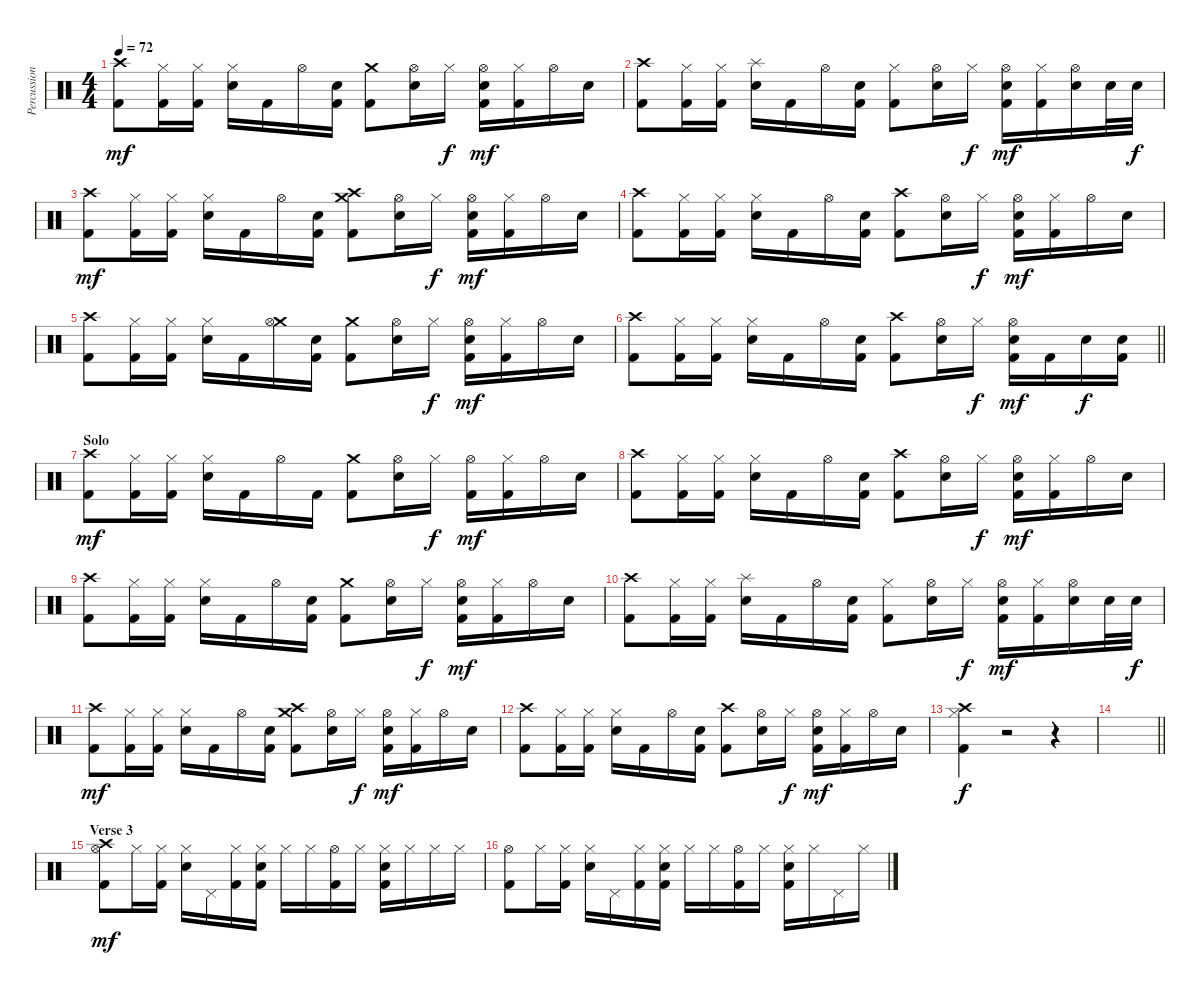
\track ("Percussion" "Percussion") {instrument percussion}
\staff {score}
\articulation defaults
\ts (4 4)
\tempo 72
\clef neutral
\ks c
("Crash high (hit)" "Kick (hit) 2").8{dy mf} ("Hi-Hat (closed)" "Kick (hit) 2").16 ("Hi-Hat (closed)" "Kick (hit) 2").16 ("Hi-Hat (closed)" "Snare (hit) 2").16 "Kick (hit) 2".16 "Hi-Hat (open)".16 ("Snare (hit) 2" "Kick (hit) 2").16 ("Crash medium (hit)" "Kick (hit) 2").8 ("Hi-Hat (open)" "Snare (hit) 2").16 "Hi-Hat (closed)".16{dy f} ("Hi-Hat (open)" "Snare (hit) 2" "Kick (hit) 2").16{dy mf} ("Hi-Hat (closed)" "Kick (hit) 2").16 "Hi-Hat (open)".16 "Snare (hit) 2".16 |
("Crash high (hit)" "Kick (hit) 2").8 ("Hi-Hat (closed)" "Kick (hit) 2").16 ("Hi-Hat (closed)" "Kick (hit) 2").16 ("Splash (hit)" "Snare (hit) 2").16 "Kick (hit) 2".16 "Hi-Hat (open)".16 ("Snare (hit) 2" "Kick (hit) 2").16 ("Hi-Hat (closed)" "Kick (hit) 2").8 ("Hi-Hat (open)" "Snare (hit) 2").16 "Hi-Hat (closed)".16{dy f} ("Hi-Hat (open)" "Snare (hit) 2" "Kick (hit) 2").16{dy mf} ("Hi-Hat (closed)" "Kick (hit) 2").16 ("Hi-Hat (open)" "Snare (hit) 2").16 "Snare (hit) 2".32 "Snare (hit) 2".32{dy f} |
("Crash high (hit)" "Kick (hit) 2").8{dy mf} ("Hi-Hat (closed)" "Kick (hit) 2").16 ("Hi-Hat (closed)" "Kick (hit) 2").16 ("Hi-Hat (closed)" "Snare (hit) 2").16 "Kick (hit) 2".16 "Hi-Hat (open)".16 ("Snare (hit) 2" "Kick (hit) 2").16 ("Crash medium (hit)" "Crash high (hit)" "Kick (hit) 2").8 ("Hi-Hat (open)" "Snare (hit) 2").16 "Hi-Hat (closed)".16{dy f} ("Hi-Hat (open)" "Snare (hit) 2" "Kick (hit) 2").16{dy mf} ("Hi-Hat (closed)" "Kick (hit) 2").16 "Hi-Hat (open)".16 "Snare (hit) 2".16 |
("Crash high (hit)" "Kick (hit) 2").8 ("Hi-Hat (closed)" "Kick (hit) 2").16 ("Hi-Hat (closed)" "Kick (hit) 2").16 ("Hi-Hat (closed)" "Snare (hit) 2").16 "Kick (hit) 2".16 "Hi-Hat (open)".16 ("Snare (hit) 2" "Kick (hit) 2").16 ("Crash high (hit)" "Kick (hit) 2").8 ("Hi-Hat (open)" "Snare (hit) 2").16 "Hi-Hat (closed)".16{dy f} ("Hi-Hat (open)" "Snare (hit) 2" "Kick (hit) 2").16{dy mf} ("Hi-Hat (closed)" "Kick (hit) 2").16 "Hi-Hat (open)".16 "Snare (hit) 2".16 |
("Crash high (hit)" "Kick (hit) 2").8 ("Hi-Hat (closed)" "Kick (hit) 2").16 ("Hi-Hat (closed)" "Kick (hit) 2").16 ("Hi-Hat (closed)" "Snare (hit) 2").16 "Kick (hit) 2".16 ("Crash medium (hit)" "Hi-Hat (open)").16 ("Snare (hit) 2" "Kick (hit) 2").16 ("Crash medium (hit)" "Kick (hit) 2").8 ("Hi-Hat (open)" "Snare (hit) 2").16 "Hi-Hat (closed)".16{dy f} ("Hi-Hat (open)" "Snare (hit) 2" "Kick (hit) 2").16{dy mf} ("Hi-Hat (closed)" "Kick (hit) 2").16 "Hi-Hat (open)".16 "Snare (hit) 2".16 |
\barLineRight lightlight
("Crash high (hit)" "Kick (hit) 2").8 ("Hi-Hat (closed)" "Kick (hit) 2").16 ("Hi-Hat (closed)" "Kick (hit) 2").16 ("Hi-Hat (closed)" "Snare (hit) 2").16 "Kick (hit) 2".16 "Hi-Hat (open)".16 ("Snare (hit) 2" "Kick (hit) 2").16 ("Crash high (hit)" "Kick (hit) 2").8 ("Hi-Hat (open)" "Snare (hit) 2").16 "Hi-Hat (closed)".16{dy f} ("Hi-Hat (open)" "Snare (hit) 2" "Kick (hit) 2").16{dy mf} "Kick (hit) 2".16 "Snare (hit) 2".16{dy f} ("Snare (hit) 2" "Kick (hit) 2").16 |
\section ("" "Solo")
("Crash high (hit)" "Kick (hit) 2").8{dy mf} ("Hi-Hat (closed)" "Kick (hit) 2").16 ("Hi-Hat (closed)" "Kick (hit) 2").16 ("Hi-Hat (closed)" "Snare (hit) 2").16 "Kick (hit) 2".16 "Hi-Hat (open)".16 "Kick (hit) 2".16 ("Crash medium (hit)" "Kick (hit) 2").8 ("Hi-Hat (open)" "Snare (hit) 2").16 "Hi-Hat (closed)".16{dy f} ("Hi-Hat (open)" "Kick (hit) 2").16{dy mf} ("Hi-Hat (closed)" "Kick (hit) 2").16 "Hi-Hat (open)".16 "Snare (hit) 2".16 |
("Crash high (hit)" "Kick (hit) 2").8 ("Hi-Hat (closed)" "Kick (hit) 2").16 ("Hi-Hat (closed)" "Kick (hit) 2").16 ("Hi-Hat (closed)" "Snare (hit) 2").16 "Kick (hit) 2".16 "Hi-Hat (open)".16 ("Snare (hit) 2" "Kick (hit) 2").16 ("Crash high (hit)" "Kick (hit) 2").8 ("Hi-Hat (open)" "Snare (hit) 2").16 "Hi-Hat (closed)".16{dy f} ("Hi-Hat (open)" "Snare (hit) 2" "Kick (hit) 2").16{dy mf} ("Hi-Hat (closed)" "Kick (hit) 2").16 "Hi-Hat (open)".16 "Snare (hit) 2".16 |
("Crash high (hit)" "Kick (hit) 2").8 ("Hi-Hat (closed)" "Kick (hit) 2").16 ("Hi-Hat (closed)" "Kick (hit) 2").16 ("Hi-Hat (closed)" "Snare (hit) 2").16 "Kick (hit) 2".16 "Hi-Hat (open)".16 ("Snare (hit) 2" "Kick (hit) 2").16 ("Crash medium (hit)" "Kick (hit) 2").8 ("Hi-Hat (open)" "Snare (hit) 2").16 "Hi-Hat (closed)".16{dy f} ("Hi-Hat (open)" "Snare (hit) 2" "Kick (hit) 2").16{dy mf} ("Hi-Hat (closed)" "Kick (hit) 2").16 "Hi-Hat (open)".16 "Snare (hit) 2".16 |
("Crash high (hit)" "Kick (hit) 2").8 ("Hi-Hat (closed)" "Kick (hit) 2").16 ("Hi-Hat (closed)" "Kick (hit) 2").16 ("Splash (hit)" "Snare (hit) 2").16 "Kick (hit) 2".16 "Hi-Hat (open)".16 ("Snare (hit) 2" "Kick (hit) 2").16 ("Hi-Hat (closed)" "Kick (hit) 2").8 ("Hi-Hat (open)" "Snare (hit) 2").16 "Hi-Hat (closed)".16{dy f} ("Hi-Hat (open)" "Snare (hit) 2" "Kick (hit) 2").16{dy mf} ("Hi-Hat (closed)" "Kick (hit) 2").16 ("Hi-Hat (open)" "Snare (hit) 2").16 "Snare (hit) 2".32 "Snare (hit) 2".32{dy f} |
("Crash high (hit)" "Kick (hit) 2").8{dy mf} ("Hi-Hat (closed)" "Kick (hit) 2").16 ("Hi-Hat (closed)" "Kick (hit) 2").16 ("Hi-Hat (closed)" "Snare (hit) 2").16 "Kick (hit) 2".16 "Hi-Hat (open)".16 ("Snare (hit) 2" "Kick (hit) 2").16 ("Crash medium (hit)" "Crash high (hit)" "Kick (hit) 2").8 ("Hi-Hat (open)" "Snare (hit) 2").16 "Hi-Hat (closed)".16{dy f} ("Hi-Hat (open)" "Snare (hit) 2" "Kick (hit) 2").16{dy mf} ("Hi-Hat (closed)" "Kick (hit) 2").16 "Hi-Hat (open)".16 "Snare (hit) 2".16 |
("Crash high (hit)" "Kick (hit) 2").8 ("Hi-Hat (closed)" "Kick (hit) 2").16 ("Hi-Hat (closed)" "Kick (hit) 2").16 ("Hi-Hat (closed)" "Snare (hit) 2").16 "Kick (hit) 2".16 "Hi-Hat (open)".16 ("Snare (hit) 2" "Kick (hit) 2").16 ("Crash high (hit)" "Kick (hit) 2").8 ("Hi-Hat (open)" "Snare (hit) 2").16 "Hi-Hat (closed)".16{dy f} ("Hi-Hat (open)" "Snare (hit) 2" "Kick (hit) 2").16{dy mf} ("Hi-Hat (closed)" "Kick (hit) 2").16 "Hi-Hat (open)".16 "Snare (hit) 2".16 |
("Crash high (hit)" "Hi-Hat (closed)" "Kick (hit) 2").4{dy f} r.2 r.4 |
\barLineRight lightlight
|
\section ("" "Verse 3")
("Crash high (hit)" "Hi-Hat (open)" "Kick (hit) 2").8{dy mf} "Hi-Hat (closed)".16 ("Hi-Hat (closed)" "Kick (hit) 2").16 ("Hi-Hat (closed)" "Snare (hit) 2").16 "Pedal Hi-Hat (hit)".16 ("Hi-Hat (closed)" "Kick (hit) 2").16 ("Hi-Hat (closed)" "Snare (hit) 2" "Kick (hit) 2").16 "Hi-Hat (closed)".16 "Hi-Hat (closed)".16 ("Hi-Hat (open)" "Kick (hit) 2").16 "Hi-Hat (closed)".16 ("Hi-Hat (closed)" "Snare (hit) 2" "Kick (hit) 2").16 "Hi-Hat (closed)".16 "Hi-Hat (closed)".16 "Hi-Hat (closed)".16 |
("Hi-Hat (open)" "Kick (hit) 2").8 "Hi-Hat (closed)".16 ("Hi-Hat (closed)" "Kick (hit) 2").16 ("Hi-Hat (closed)" "Snare (hit) 2").16 "Pedal Hi-Hat (hit)".16 ("Hi-Hat (closed)" "Kick (hit) 2").16 ("Hi-Hat (closed)" "Snare (hit) 2" "Kick (hit) 2").16 "Hi-Hat (closed)".16 "Hi-Hat (closed)".16 ("Hi-Hat (open)" "Kick (hit) 2").16 "Hi-Hat (closed)".16 ("Hi-Hat (closed)" "Snare (hit) 2" "Kick (hit) 2").16 "Hi-Hat (closed)".16 "Pedal Hi-Hat (hit)".16 "Hi-Hat (closed)".16
